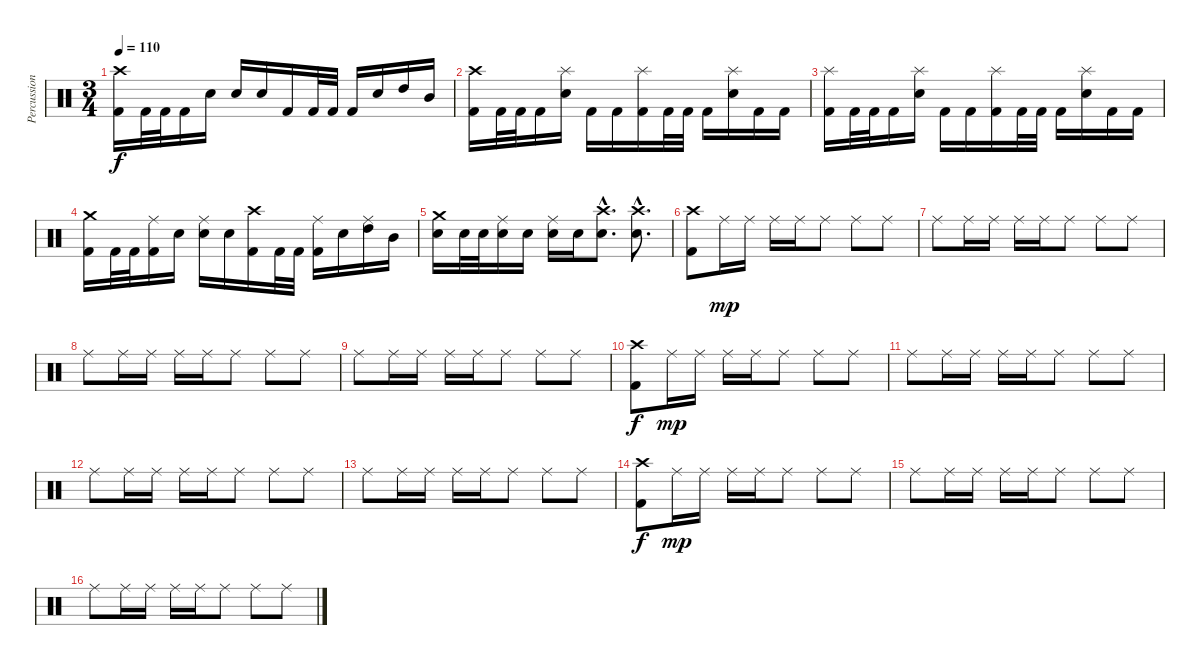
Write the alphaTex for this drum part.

\track ("Percussion" "Percussion") {instrument percussion}
\staff {score}
\articulation defaults
\ts (3 4)
\tempo 110
\clef neutral
\ks c
("Crash high (hit)" "Kick (hit) 2").16{dy f} "Kick (hit) 2".32 "Kick (hit) 2".32 "Kick (hit) 2".16 "Electric Snare (hit)".16 "Electric Snare (hit)".16 "Electric Snare (hit)".16 "Kick (hit) 2".16 "Kick (hit) 2".32 "Kick (hit) 2".32 "Kick (hit) 2".16 "Electric Snare (hit)".16 "High Tom (hit)".16 "Mid Tom (hit)".16 |
("Crash high (hit)" "Kick (hit) 2").16 "Kick (hit) 2".32 "Kick (hit) 2".32 "Kick (hit) 2".16 ("Splash (hit)" "Electric Snare (hit)").16 "Kick (hit) 2".16 "Kick (hit) 2".16 ("Splash (hit)" "Kick (hit) 2").16 "Kick (hit) 2".32 "Kick (hit) 2".32 "Kick (hit) 2".16 ("Splash (hit)" "Electric Snare (hit)").16 "Kick (hit) 2".16 "Kick (hit) 2".16 |
("Splash (hit)" "Kick (hit) 2").16 "Kick (hit) 2".32 "Kick (hit) 2".32 "Kick (hit) 2".16 ("Splash (hit)" "Electric Snare (hit)").16 "Kick (hit) 2".16 "Kick (hit) 2".16 ("Splash (hit)" "Kick (hit) 2").16 "Kick (hit) 2".32 "Kick (hit) 2".32 "Kick (hit) 2".16 ("Splash (hit)" "Electric Snare (hit)").16 "Kick (hit) 2".16 "Kick (hit) 2".16 |
("Crash medium (hit)" "Kick (hit) 2").16 "Kick (hit) 2".32 "Kick (hit) 2".32 ("Ride (middle)" "Kick (hit) 2").16 "Electric Snare (hit)".16 ("Ride (middle)" "Electric Snare (hit)").16 "Electric Snare (hit)".16 ("Crash high (hit)" "Kick (hit) 2").16 "Kick (hit) 2".32 "Kick (hit) 2".32 ("Ride (middle)" "Kick (hit) 2").16 "Electric Snare (hit)".16 ("Ride (middle)" "High Tom (hit)").16 "Mid Tom (hit)".16 |
("Crash medium (hit)" "Electric Snare (hit)").16 "Electric Snare (hit)".32 "Electric Snare (hit)".32 ("Ride (middle)" "Electric Snare (hit)").16 "Electric Snare (hit)".16 ("Ride (middle)" "Electric Snare (hit)").16 "Electric Snare (hit)".16 ("Crash high (hit)"{hac} "Electric Snare (hit)"{hac}).8{d} ("Crash high (hit)"{hac} "Electric Snare (hit)"{hac}).8{d} |
("Crash high (hit)" "Kick (hit) 2").8 "Ride (middle)".16{dy mp} "Ride (middle)".16 "Ride (middle)".16 "Ride (middle)".16 "Ride (middle)".8 "Ride (middle)".8 "Ride (middle)".8 |
"Ride (middle)".8 "Ride (middle)".16 "Ride (middle)".16 "Ride (middle)".16 "Ride (middle)".16 "Ride (middle)".8 "Ride (middle)".8 "Ride (middle)".8 |
"Ride (middle)".8 "Ride (middle)".16 "Ride (middle)".16 "Ride (middle)".16 "Ride (middle)".16 "Ride (middle)".8 "Ride (middle)".8 "Ride (middle)".8 |
"Ride (middle)".8 "Ride (middle)".16 "Ride (middle)".16 "Ride (middle)".16 "Ride (middle)".16 "Ride (middle)".8 "Ride (middle)".8 "Ride (middle)".8 |
("Crash high (hit)" "Kick (hit) 2").8{dy f} "Ride (middle)".16{dy mp} "Ride (middle)".16 "Ride (middle)".16 "Ride (middle)".16 "Ride (middle)".8 "Ride (middle)".8 "Ride (middle)".8 |
"Ride (middle)".8 "Ride (middle)".16 "Ride (middle)".16 "Ride (middle)".16 "Ride (middle)".16 "Ride (middle)".8 "Ride (middle)".8 "Ride (middle)".8 |
"Ride (middle)".8 "Ride (middle)".16 "Ride (middle)".16 "Ride (middle)".16 "Ride (middle)".16 "Ride (middle)".8 "Ride (middle)".8 "Ride (middle)".8 |
"Ride (middle)".8 "Ride (middle)".16 "Ride (middle)".16 "Ride (middle)".16 "Ride (middle)".16 "Ride (middle)".8 "Ride (middle)".8 "Ride (middle)".8 |
("Crash high (hit)" "Kick (hit) 2").8{dy f} "Ride (middle)".16{dy mp} "Ride (middle)".16 "Ride (middle)".16 "Ride (middle)".16 "Ride (middle)".8 "Ride (middle)".8 "Ride (middle)".8 |
"Ride (middle)".8 "Ride (middle)".16 "Ride (middle)".16 "Ride (middle)".16 "Ride (middle)".16 "Ride (middle)".8 "Ride (middle)".8 "Ride (middle)".8 |
"Ride (middle)".8 "Ride (middle)".16 "Ride (middle)".16 "Ride (middle)".16 "Ride (middle)".16 "Ride (middle)".8 "Ride (middle)".8 "Ride (middle)".8
